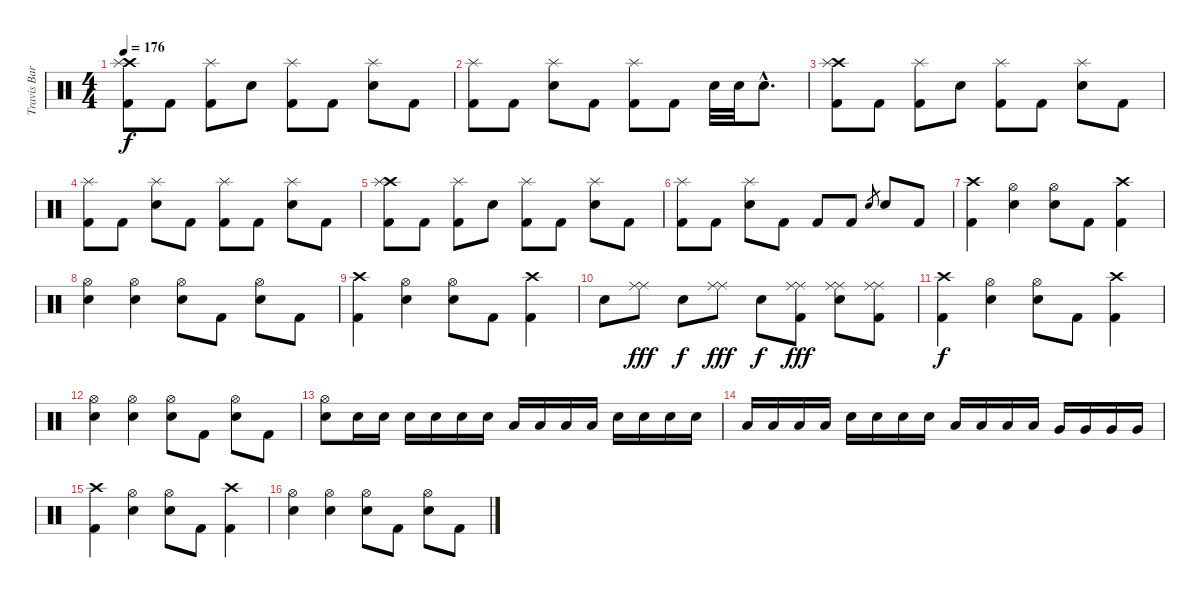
\track ("Travis Barker - Drums" "Travis Bar") {instrument percussion}
\staff {score}
\articulation defaults
\ts (4 4)
\tempo 176
\clef neutral
\ks c
("Crash high (hit)" "Splash (hit)" "Kick (hit) 2").8{dy f} "Kick (hit) 2".8 ("Splash (hit)" "Kick (hit) 2").8 "Electric Snare (hit)".8 ("Splash (hit)" "Kick (hit) 2").8 "Kick (hit) 2".8 ("Splash (hit)" "Electric Snare (hit)").8 "Kick (hit) 2".8 |
("Splash (hit)" "Kick (hit) 2").8 "Kick (hit) 2".8 ("Splash (hit)" "Electric Snare (hit)").8 "Kick (hit) 2".8 ("Splash (hit)" "Kick (hit) 2").8 "Kick (hit) 2".8 "Electric Snare (hit)".32 "Electric Snare (hit)".32 "Electric Snare (hit)"{hac}.8{d} |
("Crash high (hit)" "Splash (hit)" "Kick (hit) 2").8 "Kick (hit) 2".8 ("Splash (hit)" "Kick (hit) 2").8 "Electric Snare (hit)".8 ("Splash (hit)" "Kick (hit) 2").8 "Kick (hit) 2".8 ("Splash (hit)" "Electric Snare (hit)").8 "Kick (hit) 2".8 |
("Splash (hit)" "Kick (hit) 2").8 "Kick (hit) 2".8 ("Splash (hit)" "Electric Snare (hit)").8 "Kick (hit) 2".8 ("Splash (hit)" "Kick (hit) 2").8 "Kick (hit) 2".8 ("Splash (hit)" "Electric Snare (hit)").8 "Kick (hit) 2".8 |
("Crash high (hit)" "Splash (hit)" "Kick (hit) 2").8 "Kick (hit) 2".8 ("Splash (hit)" "Kick (hit) 2").8 "Electric Snare (hit)".8 ("Splash (hit)" "Kick (hit) 2").8 "Kick (hit) 2".8 ("Splash (hit)" "Electric Snare (hit)").8 "Kick (hit) 2".8 |
("Splash (hit)" "Kick (hit) 2").8 "Kick (hit) 2".8 ("Splash (hit)" "Electric Snare (hit)").8 "Kick (hit) 2".8 "Kick (hit) 2".8 "Kick (hit) 2".8 "Electric Snare (hit)"{sl}.8{gr} "Electric Snare (hit)".8 "Kick (hit) 2".8 |
("Crash high (hit)" "Kick (hit) 2").4 ("Hi-Hat (open)" "Electric Snare (hit)").4 ("Hi-Hat (open)" "Electric Snare (hit)").8 "Kick (hit) 2".8 ("Crash high (hit)" "Kick (hit) 2").4 |
("Hi-Hat (open)" "Electric Snare (hit)").4 ("Hi-Hat (open)" "Electric Snare (hit)").4 ("Hi-Hat (open)" "Electric Snare (hit)").8 "Kick (hit) 2".8 ("Hi-Hat (open)" "Electric Snare (hit)").8 "Kick (hit) 2".8 |
("Crash high (hit)" "Kick (hit) 2").4 ("Hi-Hat (open)" "Electric Snare (hit)").4 ("Hi-Hat (open)" "Electric Snare (hit)").8 "Kick (hit) 2".8 ("Crash high (hit)" "Kick (hit) 2").4 |
"Electric Snare (hit)".8 ("Ride (middle)" "Ride (middle)").8{dy fff} "Electric Snare (hit)".8{dy f} ("Ride (middle)" "Ride (middle)").8{dy fff} "Electric Snare (hit)".8{dy f} ("Ride (middle)" "Ride (middle)" "Kick (hit) 2").8{dy fff} ("Ride (middle)" "Ride (middle)" "Electric Snare (hit)").8 ("Ride (middle)" "Ride (middle)" "Kick (hit) 2").8 |
("Crash high (hit)" "Kick (hit) 2").4{dy f} ("Hi-Hat (open)" "Electric Snare (hit)").4 ("Hi-Hat (open)" "Electric Snare (hit)").8 "Kick (hit) 2".8 ("Crash high (hit)" "Kick (hit) 2").4 |
("Hi-Hat (open)" "Electric Snare (hit)").4 ("Hi-Hat (open)" "Electric Snare (hit)").4 ("Hi-Hat (open)" "Electric Snare (hit)").8 "Kick (hit) 2".8 ("Hi-Hat (open)" "Electric Snare (hit)").8 "Kick (hit) 2".8 |
("Hi-Hat (open)" "Electric Snare (hit)").8 "Electric Snare (hit)".16 "Electric Snare (hit)".16 "Electric Snare (hit)".16 "Electric Snare (hit)".16 "Electric Snare (hit)".16 "Electric Snare (hit)".16 "Low Tom (hit)".16 "Low Tom (hit)".16 "Low Tom (hit)".16 "Low Tom (hit)".16 "Electric Snare (hit)".16 "Electric Snare (hit)".16 "Electric Snare (hit)".16 "Electric Snare (hit)".16 |
"Low Tom (hit)".16 "Low Tom (hit)".16 "Low Tom (hit)".16 "Low Tom (hit)".16 "Electric Snare (hit)".16 "Electric Snare (hit)".16 "Electric Snare (hit)".16 "Electric Snare (hit)".16 "Low Tom (hit)".16 "Low Tom (hit)".16 "Low Tom (hit)".16 "Low Tom (hit)".16 "Very Low Tom (hit)".16 "Very Low Tom (hit)".16 "Very Low Tom (hit)".16 "Very Low Tom (hit)".16 |
("Crash high (hit)" "Kick (hit) 2").4 ("Hi-Hat (open)" "Electric Snare (hit)").4 ("Hi-Hat (open)" "Electric Snare (hit)").8 "Kick (hit) 2".8 ("Crash high (hit)" "Kick (hit) 2").4 |
("Hi-Hat (open)" "Electric Snare (hit)").4 ("Hi-Hat (open)" "Electric Snare (hit)").4 ("Hi-Hat (open)" "Electric Snare (hit)").8 "Kick (hit) 2".8 ("Hi-Hat (open)" "Electric Snare (hit)").8 "Kick (hit) 2".8
